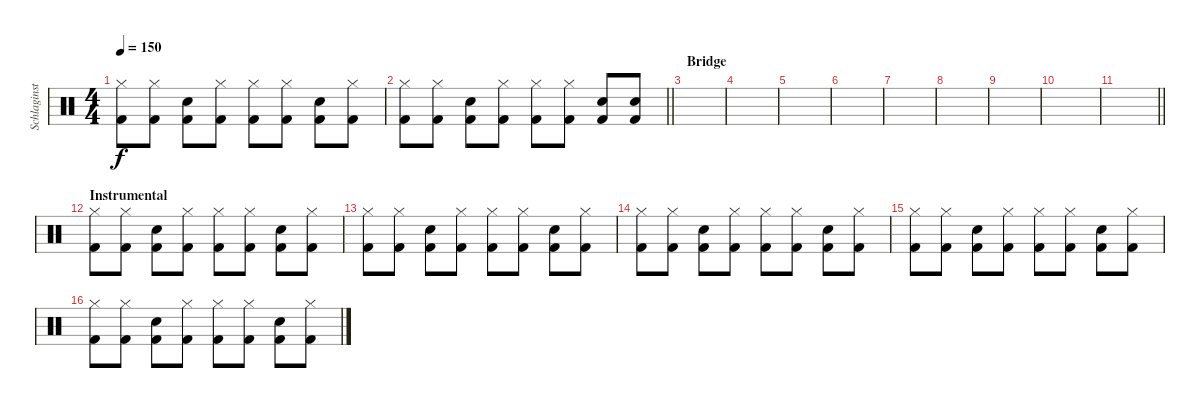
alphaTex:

\track ("Schlaginstrumente - Auswahl" "Schlaginst") {instrument percussion}
\staff {score}
\articulation defaults
\ts (4 4)
\tempo 150
\clef neutral
\ks c
("Hi-Hat (closed)" "Kick (hit) 2").8{dy f} ("Hi-Hat (closed)" "Kick (hit) 2").8 ("Snare (hit) 2" "Kick (hit) 2").8 ("Hi-Hat (closed)" "Kick (hit) 2").8 ("Hi-Hat (closed)" "Kick (hit) 2").8 ("Hi-Hat (closed)" "Kick (hit) 2").8 ("Snare (hit) 2" "Kick (hit) 2").8 ("Hi-Hat (closed)" "Kick (hit) 2").8 |
\barLineRight lightlight
("Hi-Hat (closed)" "Kick (hit) 2").8 ("Hi-Hat (closed)" "Kick (hit) 2").8 ("Snare (hit) 2" "Kick (hit) 2").8 ("Hi-Hat (closed)" "Kick (hit) 2").8 ("Hi-Hat (closed)" "Kick (hit) 2").8 ("Hi-Hat (closed)" "Kick (hit) 2").8 ("Snare (hit) 2" "Kick (hit) 2").8 ("Snare (hit) 2" "Kick (hit) 2").8 |
\section ("" "Bridge")
|
|
|
|
|
|
|
|
\barLineRight lightlight
|
\section ("" "Instrumental")
("Hi-Hat (closed)" "Kick (hit) 2").8 ("Hi-Hat (closed)" "Kick (hit) 2").8 ("Snare (hit) 2" "Kick (hit) 2").8 ("Hi-Hat (closed)" "Kick (hit) 2").8 ("Hi-Hat (closed)" "Kick (hit) 2").8 ("Hi-Hat (closed)" "Kick (hit) 2").8 ("Snare (hit) 2" "Kick (hit) 2").8 ("Hi-Hat (closed)" "Kick (hit) 2").8 |
("Hi-Hat (closed)" "Kick (hit) 2").8 ("Hi-Hat (closed)" "Kick (hit) 2").8 ("Snare (hit) 2" "Kick (hit) 2").8 ("Hi-Hat (closed)" "Kick (hit) 2").8 ("Hi-Hat (closed)" "Kick (hit) 2").8 ("Hi-Hat (closed)" "Kick (hit) 2").8 ("Snare (hit) 2" "Kick (hit) 2").8 ("Hi-Hat (closed)" "Kick (hit) 2").8 |
("Hi-Hat (closed)" "Kick (hit) 2").8 ("Hi-Hat (closed)" "Kick (hit) 2").8 ("Snare (hit) 2" "Kick (hit) 2").8 ("Hi-Hat (closed)" "Kick (hit) 2").8 ("Hi-Hat (closed)" "Kick (hit) 2").8 ("Hi-Hat (closed)" "Kick (hit) 2").8 ("Snare (hit) 2" "Kick (hit) 2").8 ("Hi-Hat (closed)" "Kick (hit) 2").8 |
("Hi-Hat (closed)" "Kick (hit) 2").8 ("Hi-Hat (closed)" "Kick (hit) 2").8 ("Snare (hit) 2" "Kick (hit) 2").8 ("Hi-Hat (closed)" "Kick (hit) 2").8 ("Hi-Hat (closed)" "Kick (hit) 2").8 ("Hi-Hat (closed)" "Kick (hit) 2").8 ("Snare (hit) 2" "Kick (hit) 2").8 ("Hi-Hat (closed)" "Kick (hit) 2").8 |
("Hi-Hat (closed)" "Kick (hit) 2").8 ("Hi-Hat (closed)" "Kick (hit) 2").8 ("Snare (hit) 2" "Kick (hit) 2").8 ("Hi-Hat (closed)" "Kick (hit) 2").8 ("Hi-Hat (closed)" "Kick (hit) 2").8 ("Hi-Hat (closed)" "Kick (hit) 2").8 ("Snare (hit) 2" "Kick (hit) 2").8 ("Hi-Hat (closed)" "Kick (hit) 2").8
